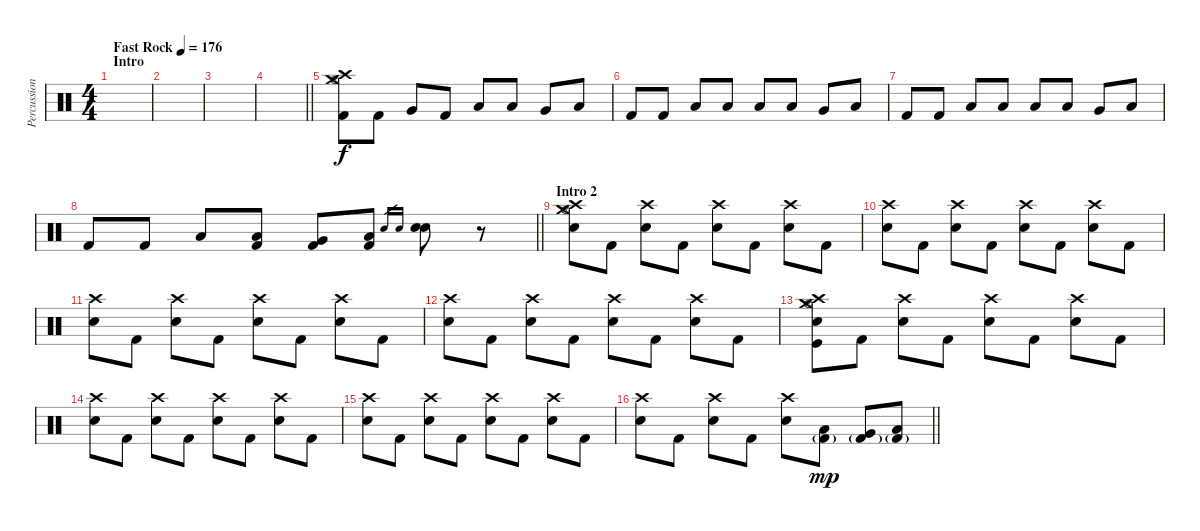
\track ("Percussion" "Percussion") {instrument percussion}
\staff {score}
\articulation defaults
\ts (4 4)
\section ("" "Intro")
\tempo (176 "Fast Rock")
\clef neutral
\ks c
|
|
|
\barLineRight lightlight
|
("Hi-Hat (open)" "Crash medium (hit)" "Crash high (hit)" "Kick (hit) 2").8 "Kick (hit) 2".8 "Very Low Tom (hit)".8 "Kick (hit) 2".8 "Low Floor Tom (hit)".8 "Low Tom (hit)".8 "Very Low Tom (hit)".8 "Low Tom (hit)".8 |
"Kick (hit) 2".8 "Kick (hit) 2".8 "Low Tom (hit)".8 "Low Floor Tom (hit)".8 "Low Floor Tom (hit)".8 "Low Tom (hit)".8 "Very Low Tom (hit)".8 "Low Tom (hit)".8 |
"Kick (hit) 2".8 "Kick (hit) 2".8 "Low Tom (hit)".8 "Low Floor Tom (hit)".8 "Low Floor Tom (hit)".8 "Low Tom (hit)".8 "Very Low Tom (hit)".8 "Low Tom (hit)".8 |
\barLineRight lightlight "Kick (hit) 2".8 "Kick (hit) 2".8 "Low Tom (hit)".8
("Low Tom (hit)" "Kick (hit) 2").8 ("Very Low Tom (hit)" "Kick (hit) 2").8 ("Low Floor Tom (hit)" "Kick (hit) 2").8 "Electric Snare (hit)".16{gr} "Electric Snare (hit)".16{gr} ("Electric Snare (hit)" "Electric Snare (hit)").8 r.8 |
\section ("" "Intro 2")
("Crash medium (hit)" "Crash high (hit)" "Hi-Hat (open)" "Electric Snare (hit)").8 "Kick (hit) 2".8 ("Crash high (hit)" "Electric Snare (hit)").8 "Kick (hit) 2".8 ("Crash high (hit)" "Electric Snare (hit)").8 "Kick (hit) 2".8 ("Crash high (hit)" "Electric Snare (hit)").8 "Kick (hit) 2".8 |
("Crash high (hit)" "Electric Snare (hit)").8 "Kick (hit) 2".8 ("Crash high (hit)" "Electric Snare (hit)").8 "Kick (hit) 2".8 ("Crash high (hit)" "Electric Snare (hit)").8 "Kick (hit) 2".8 ("Crash high (hit)" "Electric Snare (hit)").8 "Kick (hit) 2".8 |
("Crash high (hit)" "Electric Snare (hit)").8 "Kick (hit) 2".8 ("Crash high (hit)" "Electric Snare (hit)").8 "Kick (hit) 2".8 ("Crash high (hit)" "Electric Snare (hit)").8 "Kick (hit) 2".8 ("Crash high (hit)" "Electric Snare (hit)").8 "Kick (hit) 2".8 |
("Crash high (hit)" "Electric Snare (hit)").8 "Kick (hit) 2".8 ("Crash high (hit)" "Electric Snare (hit)").8 "Kick (hit) 2".8 ("Crash high (hit)" "Electric Snare (hit)").8 "Kick (hit) 2".8 ("Crash high (hit)" "Electric Snare (hit)").8 "Kick (hit) 2".8 |
("Crash medium (hit)" "Crash high (hit)" "Hi-Hat (open)" "Kick (hit)" "Electric Snare (hit)").8 "Kick (hit) 2".8 ("Crash high (hit)" "Electric Snare (hit)").8 "Kick (hit) 2".8 ("Crash high (hit)" "Electric Snare (hit)").8 "Kick (hit) 2".8 ("Crash high (hit)" "Electric Snare (hit)").8 "Kick (hit) 2".8 |
("Crash high (hit)" "Electric Snare (hit)").8 "Kick (hit) 2".8 ("Crash high (hit)" "Electric Snare (hit)").8 "Kick (hit) 2".8 ("Crash high (hit)" "Electric Snare (hit)").8 "Kick (hit) 2".8 ("Crash high (hit)" "Electric Snare (hit)").8 "Kick (hit) 2".8 |
("Crash high (hit)" "Electric Snare (hit)").8 "Kick (hit) 2".8 ("Crash high (hit)" "Electric Snare (hit)").8 "Kick (hit) 2".8 ("Crash high (hit)" "Electric Snare (hit)").8 "Kick (hit) 2".8 ("Crash high (hit)" "Electric Snare (hit)").8 "Kick (hit) 2".8 |
\barLineRight lightlight
("Crash high (hit)" "Electric Snare (hit)").8 "Kick (hit) 2".8 ("Crash high (hit)" "Electric Snare (hit)").8 "Kick (hit) 2".8 ("Crash high (hit)" "Electric Snare (hit)").8 ("Low Tom (hit)" "Kick (hit) 2"{g}).8{dy mp} ("Very Low Tom (hit)" "Kick (hit) 2"{g}).8 ("Low Floor Tom (hit)" "Kick (hit) 2"{g}).8
